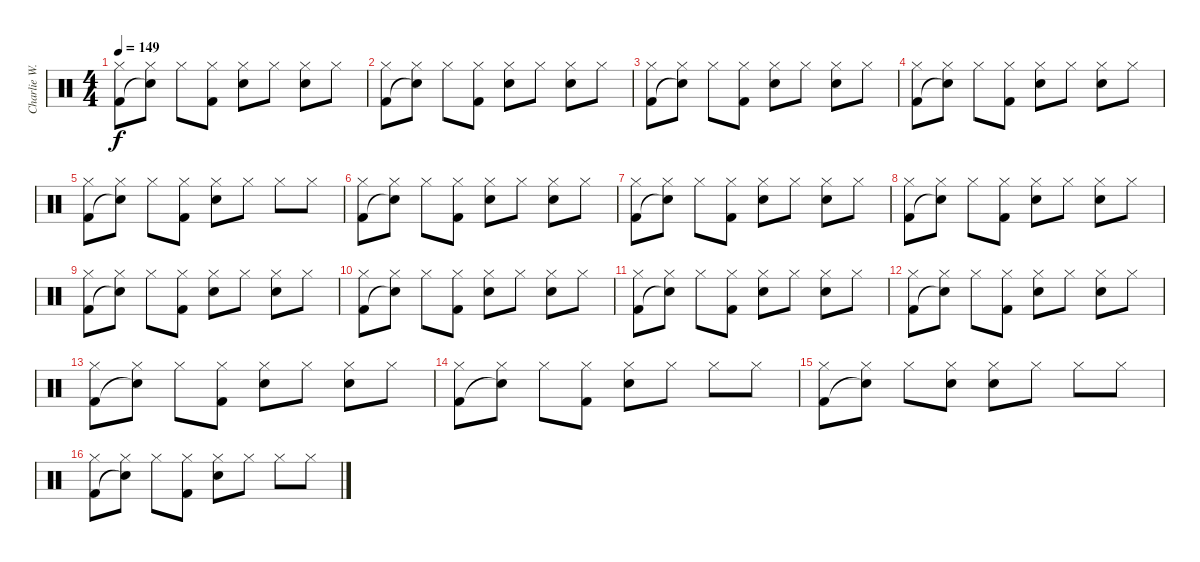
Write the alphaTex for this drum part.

\track ("Charlie W. drums" "Charlie W.") {instrument percussion}
\staff {score}
\articulation defaults
\ts (4 4)
\tempo 149
\clef neutral
\ks c
("Hi-Hat (closed)" "Kick (hit) 2").8{dy f} ("Hi-Hat (closed)" "Snare (hit)"{t}).8 "Hi-Hat (closed)".8 ("Hi-Hat (closed)" "Kick (hit) 2").8 ("Hi-Hat (closed)" "Snare (hit) 2").8 "Hi-Hat (closed)".8 ("Hi-Hat (closed)" "Snare (hit) 2").8 "Hi-Hat (closed)".8 |
("Hi-Hat (closed)" "Kick (hit) 2").8 ("Hi-Hat (closed)" "Snare (hit)"{t}).8 "Hi-Hat (closed)".8 ("Hi-Hat (closed)" "Kick (hit) 2").8 ("Hi-Hat (closed)" "Snare (hit) 2").8 "Hi-Hat (closed)".8 ("Hi-Hat (closed)" "Snare (hit) 2").8 "Hi-Hat (closed)".8 |
("Hi-Hat (closed)" "Kick (hit) 2").8 ("Hi-Hat (closed)" "Snare (hit)"{t}).8 "Hi-Hat (closed)".8 ("Hi-Hat (closed)" "Kick (hit) 2").8 ("Hi-Hat (closed)" "Snare (hit) 2").8 "Hi-Hat (closed)".8 ("Hi-Hat (closed)" "Snare (hit) 2").8 "Hi-Hat (closed)".8 |
("Hi-Hat (closed)" "Kick (hit) 2").8 ("Hi-Hat (closed)" "Snare (hit)"{t}).8 "Hi-Hat (closed)".8 ("Hi-Hat (closed)" "Kick (hit) 2").8 ("Hi-Hat (closed)" "Snare (hit) 2").8 "Hi-Hat (closed)".8 ("Hi-Hat (closed)" "Snare (hit) 2").8 "Hi-Hat (closed)".8 |
("Hi-Hat (closed)" "Kick (hit) 2").8 ("Hi-Hat (closed)" "Snare (hit)"{t}).8 "Hi-Hat (closed)".8 ("Hi-Hat (closed)" "Kick (hit) 2").8 ("Hi-Hat (closed)" "Snare (hit) 2").8 "Hi-Hat (closed)".8 "Hi-Hat (closed)".8 "Hi-Hat (closed)".8 |
("Hi-Hat (closed)" "Kick (hit) 2").8 ("Hi-Hat (closed)" "Snare (hit)"{t}).8 "Hi-Hat (closed)".8 ("Hi-Hat (closed)" "Kick (hit) 2").8 ("Hi-Hat (closed)" "Snare (hit) 2").8 "Hi-Hat (closed)".8 ("Hi-Hat (closed)" "Snare (hit) 2").8 "Hi-Hat (closed)".8 |
("Hi-Hat (closed)" "Kick (hit) 2").8 ("Hi-Hat (closed)" "Snare (hit)"{t}).8 "Hi-Hat (closed)".8 ("Hi-Hat (closed)" "Kick (hit) 2").8 ("Hi-Hat (closed)" "Snare (hit) 2").8 "Hi-Hat (closed)".8 ("Hi-Hat (closed)" "Snare (hit) 2").8 "Hi-Hat (closed)".8 |
("Hi-Hat (closed)" "Kick (hit) 2").8 ("Hi-Hat (closed)" "Snare (hit)"{t}).8 "Hi-Hat (closed)".8 ("Hi-Hat (closed)" "Kick (hit) 2").8 ("Hi-Hat (closed)" "Snare (hit) 2").8 "Hi-Hat (closed)".8 ("Hi-Hat (closed)" "Snare (hit) 2").8 "Hi-Hat (closed)".8 |
("Hi-Hat (closed)" "Kick (hit) 2").8 ("Hi-Hat (closed)" "Snare (hit)"{t}).8 "Hi-Hat (closed)".8 ("Hi-Hat (closed)" "Kick (hit) 2").8 ("Hi-Hat (closed)" "Snare (hit) 2").8 "Hi-Hat (closed)".8 ("Hi-Hat (closed)" "Snare (hit) 2").8 "Hi-Hat (closed)".8 |
("Hi-Hat (closed)" "Kick (hit) 2").8 ("Hi-Hat (closed)" "Snare (hit)"{t}).8 "Hi-Hat (closed)".8 ("Hi-Hat (closed)" "Kick (hit) 2").8 ("Hi-Hat (closed)" "Snare (hit) 2").8 "Hi-Hat (closed)".8 ("Hi-Hat (closed)" "Snare (hit) 2").8 "Hi-Hat (closed)".8 |
("Hi-Hat (closed)" "Kick (hit) 2").8 ("Hi-Hat (closed)" "Snare (hit)"{t}).8 "Hi-Hat (closed)".8 ("Hi-Hat (closed)" "Kick (hit) 2").8 ("Hi-Hat (closed)" "Snare (hit) 2").8 "Hi-Hat (closed)".8 ("Hi-Hat (closed)" "Snare (hit) 2").8 "Hi-Hat (closed)".8 |
("Hi-Hat (closed)" "Kick (hit) 2").8 ("Hi-Hat (closed)" "Snare (hit)"{t}).8 "Hi-Hat (closed)".8 ("Hi-Hat (closed)" "Kick (hit) 2").8 ("Hi-Hat (closed)" "Snare (hit) 2").8 "Hi-Hat (closed)".8 ("Hi-Hat (closed)" "Snare (hit) 2").8 "Hi-Hat (closed)".8 |
("Hi-Hat (closed)" "Kick (hit) 2").8 ("Hi-Hat (closed)" "Snare (hit)"{t}).8 "Hi-Hat (closed)".8 ("Hi-Hat (closed)" "Kick (hit) 2").8 ("Hi-Hat (closed)" "Snare (hit) 2").8 "Hi-Hat (closed)".8 ("Hi-Hat (closed)" "Snare (hit) 2").8 "Hi-Hat (closed)".8 |
("Hi-Hat (closed)" "Kick (hit) 2").8 ("Hi-Hat (closed)" "Snare (hit)"{t}).8 "Hi-Hat (closed)".8 ("Hi-Hat (closed)" "Kick (hit) 2").8 ("Hi-Hat (closed)" "Snare (hit) 2").8 "Hi-Hat (closed)".8 "Hi-Hat (closed)".8 "Hi-Hat (closed)".8 |
("Hi-Hat (closed)" "Kick (hit) 2").8 ("Hi-Hat (closed)" "Snare (hit)"{t}).8 "Hi-Hat (closed)".8 ("Hi-Hat (closed)" "Snare (hit) 2").8 ("Hi-Hat (closed)" "Snare (hit) 2").8 "Hi-Hat (closed)".8 "Hi-Hat (closed)".8 "Hi-Hat (closed)".8 |
("Hi-Hat (closed)" "Kick (hit) 2").8 ("Hi-Hat (closed)" "Snare (hit)"{t}).8 "Hi-Hat (closed)".8 ("Hi-Hat (closed)" "Kick (hit) 2").8 ("Hi-Hat (closed)" "Snare (hit) 2").8 "Hi-Hat (closed)".8 "Hi-Hat (closed)".8 "Hi-Hat (closed)".8
